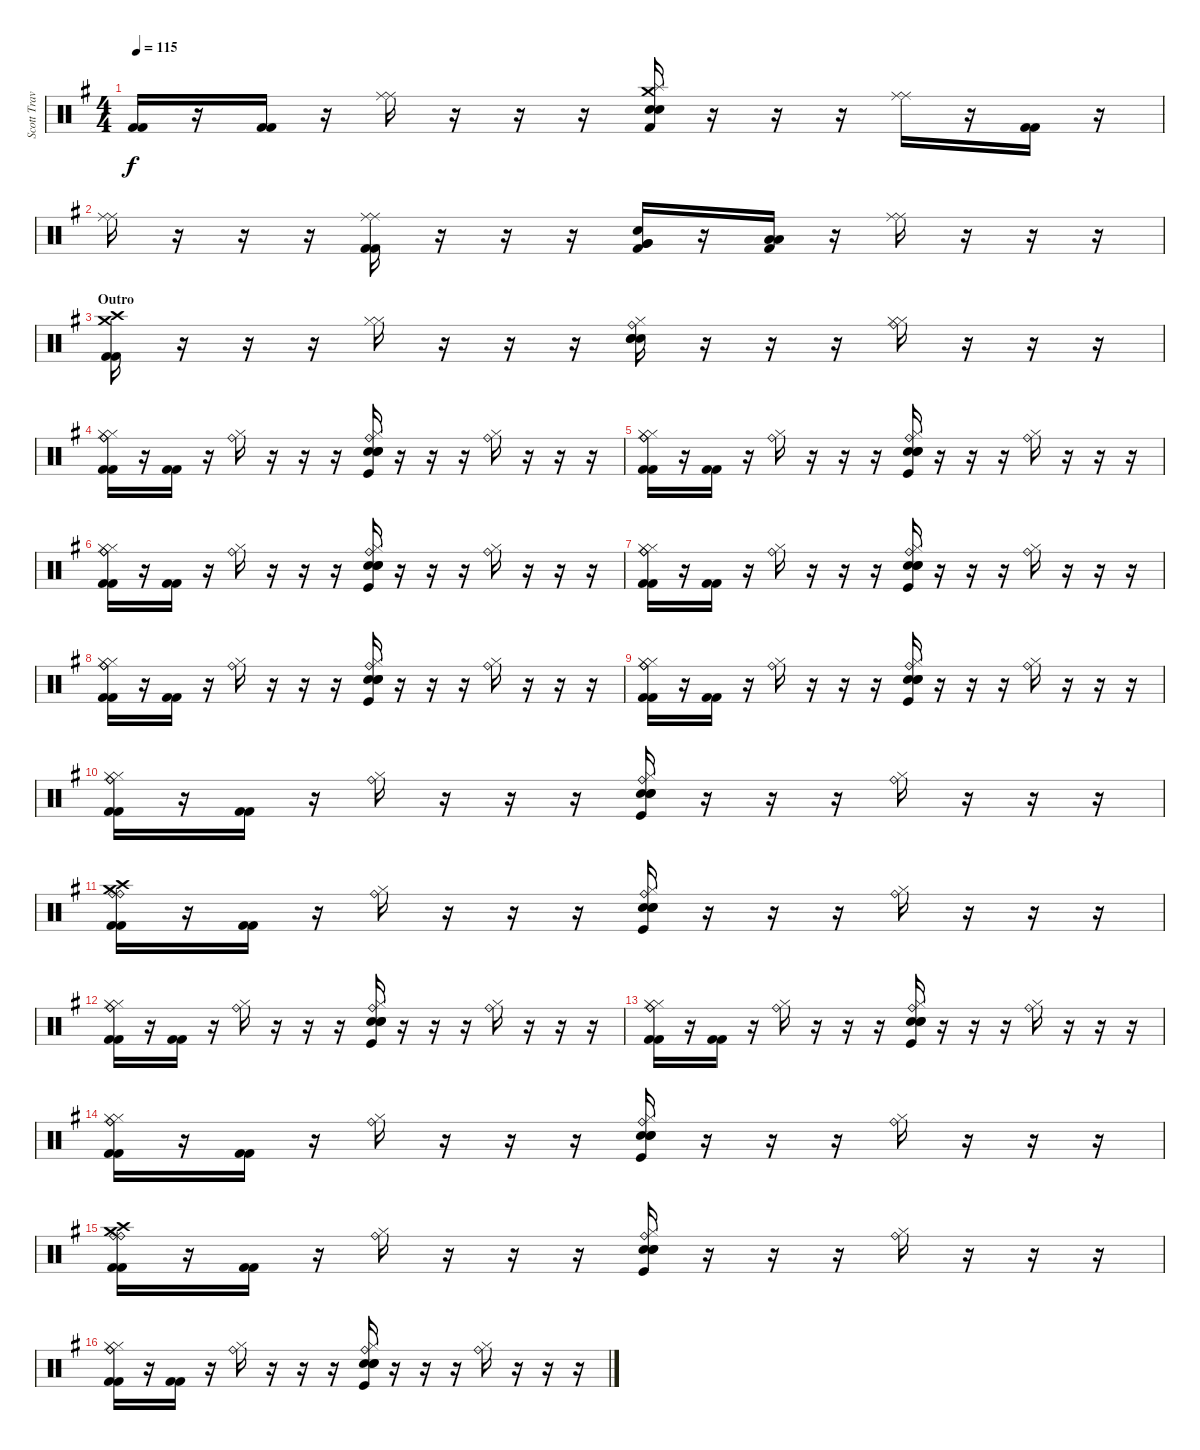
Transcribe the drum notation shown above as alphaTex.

\track ("Scott Travis" "Scott Trav") {instrument percussion}
\staff {score}
\articulation defaults
\ts (4 4)
\tempo 115
\clef neutral
\ks eminor
("Kick (hit) 2" "Kick (hit) 2").16{dy f} r.16 ("Kick (hit) 2" "Kick (hit) 2").16 r.16 ("Ride (middle)" "Ride (middle)").16 r.16 r.16 r.16 ("Crash medium (hit)" "Splash (hit)" "Snare (hit) 2" "Snare (hit) 2" "Kick (hit) 2").16 r.16 r.16 r.16 ("Ride (middle)" "Ride (middle)").16 r.16 ("Kick (hit) 2" "Kick (hit) 2").16 r.16 |
("Ride (middle)" "Ride (middle)").16 r.16 r.16 r.16 ("Ride (middle)" "Ride (middle)" "Kick (hit) 2" "Kick (hit) 2").16 r.16 r.16 r.16 ("Snare (hit) 2" "Very Low Tom (hit)" "Very Low Tom (hit)" "Kick (hit) 2").16 r.16 ("Low Floor Tom (hit)" "Low Floor Tom (hit)" "Kick (hit) 2").16 r.16 ("Ride (middle)" "Ride (middle)").16 r.16 r.16 r.16 |
\section ("" "Outro")
("Crash medium (hit)" "Crash high (hit)" "Kick (hit) 2" "Kick (hit) 2").16 r.16 r.16 r.16 ("Hi-Hat (closed)" "Hi-Hat (closed)").16 r.16 r.16 r.16 ("Ride (bell)" "Hi-Hat (closed)" "Snare (hit) 2" "Snare (hit) 2" "Snare (hit) 2").16 r.16 r.16 r.16 ("Hi-Hat (closed)" "Hi-Hat (closed)" "Ride (bell)").16 r.16 r.16 r.16 |
("Hi-Hat (closed)" "Hi-Hat (closed)" "Ride (bell)" "Ride (bell)" "Kick (hit) 2" "Kick (hit) 2").16 r.16 ("Kick (hit) 2" "Kick (hit) 2").16 r.16 ("Hi-Hat (closed)" "Ride (bell)").16 r.16 r.16 r.16 ("Hi-Hat (closed)" "Ride (bell)" "Snare (hit) 2" "Snare (hit) 2" "Snare (hit) 2" "Kick (hit)").16 r.16 r.16 r.16 ("Hi-Hat (closed)" "Ride (bell)").16 r.16 r.16 r.16 |
("Hi-Hat (closed)" "Hi-Hat (closed)" "Ride (bell)" "Ride (bell)" "Kick (hit) 2" "Kick (hit) 2").16 r.16 ("Kick (hit) 2" "Kick (hit) 2").16 r.16 ("Hi-Hat (closed)" "Ride (bell)").16 r.16 r.16 r.16 ("Hi-Hat (closed)" "Ride (bell)" "Snare (hit) 2" "Snare (hit) 2" "Snare (hit) 2" "Kick (hit)").16 r.16 r.16 r.16 ("Hi-Hat (closed)" "Ride (bell)").16 r.16 r.16 r.16 |
("Hi-Hat (closed)" "Hi-Hat (closed)" "Ride (bell)" "Ride (bell)" "Kick (hit) 2" "Kick (hit) 2").16 r.16 ("Kick (hit) 2" "Kick (hit) 2").16 r.16 ("Hi-Hat (closed)" "Ride (bell)").16 r.16 r.16 r.16 ("Hi-Hat (closed)" "Ride (bell)" "Snare (hit) 2" "Snare (hit) 2" "Snare (hit) 2" "Kick (hit)").16 r.16 r.16 r.16 ("Hi-Hat (closed)" "Ride (bell)").16 r.16 r.16 r.16 |
("Hi-Hat (closed)" "Hi-Hat (closed)" "Ride (bell)" "Ride (bell)" "Kick (hit) 2" "Kick (hit) 2").16 r.16 ("Kick (hit) 2" "Kick (hit) 2").16 r.16 ("Hi-Hat (closed)" "Ride (bell)").16 r.16 r.16 r.16 ("Hi-Hat (closed)" "Ride (bell)" "Snare (hit) 2" "Snare (hit) 2" "Snare (hit) 2" "Kick (hit)").16 r.16 r.16 r.16 ("Hi-Hat (closed)" "Ride (bell)").16 r.16 r.16 r.16 |
("Hi-Hat (closed)" "Hi-Hat (closed)" "Ride (bell)" "Ride (bell)" "Kick (hit) 2" "Kick (hit) 2").16 r.16 ("Kick (hit) 2" "Kick (hit) 2").16 r.16 ("Hi-Hat (closed)" "Ride (bell)").16 r.16 r.16 r.16 ("Hi-Hat (closed)" "Ride (bell)" "Snare (hit) 2" "Snare (hit) 2" "Snare (hit) 2" "Kick (hit)").16 r.16 r.16 r.16 ("Hi-Hat (closed)" "Ride (bell)").16 r.16 r.16 r.16 |
("Hi-Hat (closed)" "Hi-Hat (closed)" "Ride (bell)" "Ride (bell)" "Kick (hit) 2" "Kick (hit) 2").16 r.16 ("Kick (hit) 2" "Kick (hit) 2").16 r.16 ("Hi-Hat (closed)" "Ride (bell)").16 r.16 r.16 r.16 ("Hi-Hat (closed)" "Ride (bell)" "Snare (hit) 2" "Snare (hit) 2" "Snare (hit) 2" "Kick (hit)").16 r.16 r.16 r.16 ("Hi-Hat (closed)" "Ride (bell)").16 r.16 r.16 r.16 |
("Hi-Hat (closed)" "Hi-Hat (closed)" "Ride (bell)" "Ride (bell)" "Kick (hit) 2" "Kick (hit) 2").16 r.16 ("Kick (hit) 2" "Kick (hit) 2").16 r.16 ("Hi-Hat (closed)" "Ride (bell)").16 r.16 r.16 r.16 ("Hi-Hat (closed)" "Ride (bell)" "Snare (hit) 2" "Snare (hit) 2" "Snare (hit) 2" "Kick (hit)").16 r.16 r.16 r.16 ("Hi-Hat (closed)" "Ride (bell)").16 r.16 r.16 r.16 |
("Crash medium (hit)" "Crash high (hit)" "Ride (bell)" "Ride (bell)" "Kick (hit) 2" "Kick (hit) 2").16 r.16 ("Kick (hit) 2" "Kick (hit) 2").16 r.16 ("Hi-Hat (closed)" "Ride (bell)").16 r.16 r.16 r.16 ("Hi-Hat (closed)" "Ride (bell)" "Snare (hit) 2" "Snare (hit) 2" "Snare (hit) 2" "Kick (hit)").16 r.16 r.16 r.16 ("Hi-Hat (closed)" "Ride (bell)").16 r.16 r.16 r.16 |
("Hi-Hat (closed)" "Hi-Hat (closed)" "Ride (bell)" "Ride (bell)" "Kick (hit) 2" "Kick (hit) 2").16 r.16 ("Kick (hit) 2" "Kick (hit) 2").16 r.16 ("Hi-Hat (closed)" "Ride (bell)").16 r.16 r.16 r.16 ("Hi-Hat (closed)" "Ride (bell)" "Snare (hit) 2" "Snare (hit) 2" "Snare (hit) 2" "Kick (hit)").16 r.16 r.16 r.16 ("Hi-Hat (closed)" "Ride (bell)").16 r.16 r.16 r.16 |
("Hi-Hat (closed)" "Hi-Hat (closed)" "Ride (bell)" "Ride (bell)" "Kick (hit) 2" "Kick (hit) 2").16 r.16 ("Kick (hit) 2" "Kick (hit) 2").16 r.16 ("Hi-Hat (closed)" "Ride (bell)").16 r.16 r.16 r.16 ("Hi-Hat (closed)" "Ride (bell)" "Snare (hit) 2" "Snare (hit) 2" "Snare (hit) 2" "Kick (hit)").16 r.16 r.16 r.16 ("Hi-Hat (closed)" "Ride (bell)").16 r.16 r.16 r.16 |
("Hi-Hat (closed)" "Hi-Hat (closed)" "Ride (bell)" "Ride (bell)" "Kick (hit) 2" "Kick (hit) 2").16 r.16 ("Kick (hit) 2" "Kick (hit) 2").16 r.16 ("Hi-Hat (closed)" "Ride (bell)").16 r.16 r.16 r.16 ("Hi-Hat (closed)" "Ride (bell)" "Snare (hit) 2" "Snare (hit) 2" "Snare (hit) 2" "Kick (hit)").16 r.16 r.16 r.16 ("Hi-Hat (closed)" "Ride (bell)").16 r.16 r.16 r.16 |
("Crash medium (hit)" "Crash high (hit)" "Ride (bell)" "Ride (bell)" "Kick (hit) 2" "Kick (hit) 2").16 r.16 ("Kick (hit) 2" "Kick (hit) 2").16 r.16 ("Hi-Hat (closed)" "Ride (bell)").16 r.16 r.16 r.16 ("Hi-Hat (closed)" "Ride (bell)" "Snare (hit) 2" "Snare (hit) 2" "Snare (hit) 2" "Kick (hit)").16 r.16 r.16 r.16 ("Hi-Hat (closed)" "Ride (bell)").16 r.16 r.16 r.16 |
("Hi-Hat (closed)" "Hi-Hat (closed)" "Ride (bell)" "Ride (bell)" "Kick (hit) 2" "Kick (hit) 2").16 r.16 ("Kick (hit) 2" "Kick (hit) 2").16 r.16 ("Hi-Hat (closed)" "Ride (bell)").16 r.16 r.16 r.16 ("Hi-Hat (closed)" "Ride (bell)" "Snare (hit) 2" "Snare (hit) 2" "Snare (hit) 2" "Kick (hit)").16 r.16 r.16 r.16 ("Hi-Hat (closed)" "Ride (bell)").16 r.16 r.16 r.16
